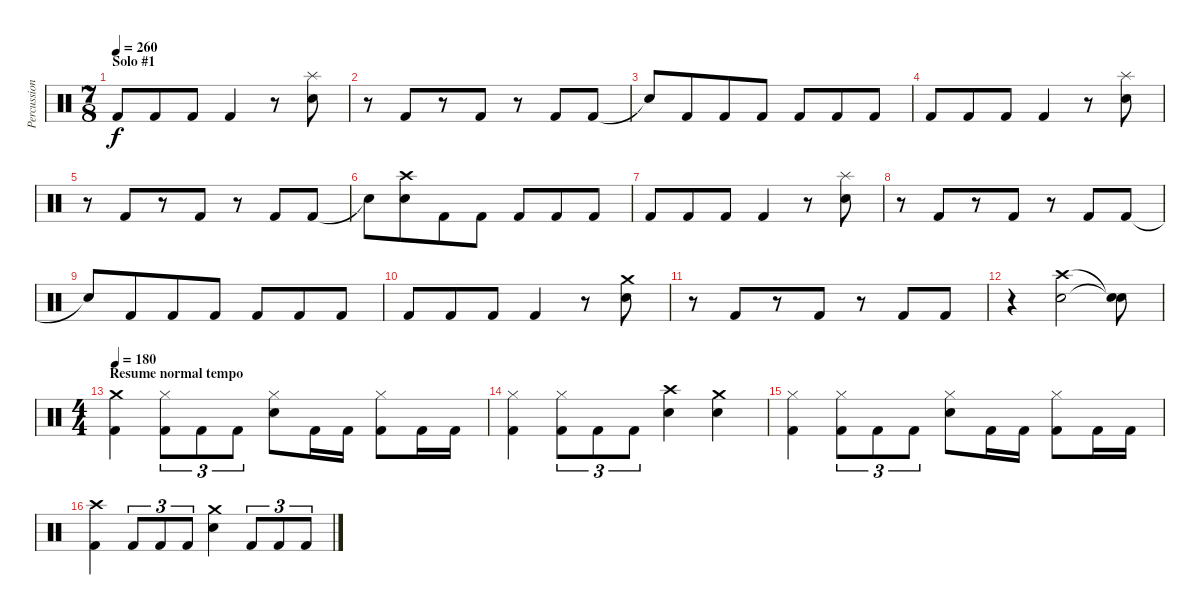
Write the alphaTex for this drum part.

\track ("Percussion" "Percussion") {instrument percussion}
\staff {score}
\articulation defaults
\ts (7 8)
\section ("" "Solo #1")
\tempo 260
\clef neutral
\ks c "Kick (hit) 2".8{dy f} "Kick (hit) 2".8 "Kick (hit) 2".8 "Kick (hit) 2".4
r.8 ("Splash (hit)" "Snare (hit) 2").8 |
r.8 "Kick (hit) 2".8 r.8 "Kick (hit) 2".8 r.8 "Kick (hit) 2".8 "Kick (hit) 2".8 |
"Snare (hit)"{t}.8 "Kick (hit) 2".8 "Kick (hit) 2".8 "Kick (hit) 2".8 "Kick (hit) 2".8 "Kick (hit) 2".8 "Kick (hit) 2".8 |
"Kick (hit) 2".8 "Kick (hit) 2".8 "Kick (hit) 2".8 "Kick (hit) 2".4 r.8 ("Splash (hit)" "Snare (hit) 2").8 |
r.8 "Kick (hit) 2".8 r.8 "Kick (hit) 2".8 r.8 "Kick (hit) 2".8 "Kick (hit) 2".8 |
"Snare (hit)"{t}.8 ("Crash high (hit)" "Snare (hit) 2").8 "Kick (hit) 2".8 "Kick (hit) 2".8 "Kick (hit) 2".8 "Kick (hit) 2".8 "Kick (hit) 2".8 |
"Kick (hit) 2".8 "Kick (hit) 2".8 "Kick (hit) 2".8 "Kick (hit) 2".4 r.8 ("Splash (hit)" "Snare (hit) 2").8 |
r.8 "Kick (hit) 2".8 r.8 "Kick (hit) 2".8 r.8 "Kick (hit) 2".8 "Kick (hit) 2".8 |
"Snare (hit)"{t}.8 "Kick (hit) 2".8 "Kick (hit) 2".8 "Kick (hit) 2".8 "Kick (hit) 2".8 "Kick (hit) 2".8 "Kick (hit) 2".8 |
"Kick (hit) 2".8 "Kick (hit) 2".8 "Kick (hit) 2".8 "Kick (hit) 2".4 r.8 ("Crash medium (hit)" "Snare (hit) 2").8 |
r.8 "Kick (hit) 2".8 r.8 "Kick (hit) 2".8 r.8 "Kick (hit) 2".8 "Kick (hit) 2".8 |
r.4 ("Crash high (hit)" "Snare (hit) 2").2 ("Snare (hit)"{t} "Snare (hit)"{t}).8 |
\ts (4 4)
\section ("" "Resume normal tempo")
\tempo 180
("Crash medium (hit)" "Kick (hit) 2").4 ("Hi-Hat (closed)" "Kick (hit) 2").8{tu (3 2)} "Kick (hit) 2".8{tu (3 2)} "Kick (hit) 2".8{tu (3 2)} ("Hi-Hat (closed)" "Snare (hit) 2").8 "Kick (hit) 2".16 "Kick (hit) 2".16 ("Hi-Hat (closed)" "Kick (hit) 2").8 "Kick (hit) 2".16 "Kick (hit) 2".16 |
("Hi-Hat (closed)" "Kick (hit) 2").4 ("Hi-Hat (closed)" "Kick (hit) 2").8{tu (3 2)} "Kick (hit) 2".8{tu (3 2)} "Kick (hit) 2".8{tu (3 2)} ("Crash high (hit)" "Snare (hit) 2").4 ("Crash medium (hit)" "Snare (hit) 2").4 |
("Hi-Hat (closed)" "Kick (hit) 2").4 ("Hi-Hat (closed)" "Kick (hit) 2").8{tu (3 2)} "Kick (hit) 2".8{tu (3 2)} "Kick (hit) 2".8{tu (3 2)} ("Hi-Hat (closed)" "Snare (hit) 2").8 "Kick (hit) 2".16 "Kick (hit) 2".16 ("Hi-Hat (closed)" "Kick (hit) 2").8 "Kick (hit) 2".16 "Kick (hit) 2".16 |
("Crash high (hit)" "Kick (hit) 2").4 "Kick (hit) 2".8{tu (3 2)} "Kick (hit) 2".8{tu (3 2)} "Kick (hit) 2".8{tu (3 2)} ("Crash medium (hit)" "Snare (hit) 2").4 "Kick (hit) 2".8{tu (3 2)} "Kick (hit) 2".8{tu (3 2)} "Kick (hit) 2".8{tu (3 2)}
